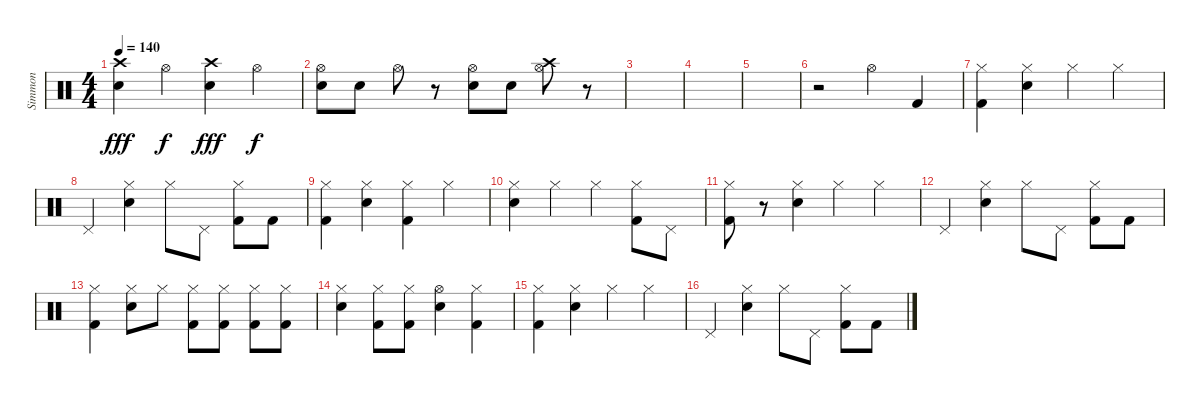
\track ("Simmon" "Simmon") {instrument percussion}
\staff {score}
\articulation defaults
\ts (4 4)
\tempo 140
\clef neutral
\ks c
("Crash high (hit)" "Electric Snare (hit)").4{dy fff} "Hi-Hat (open)".4{dy f} ("Crash high (hit)" "Electric Snare (hit)").4{dy fff} "Hi-Hat (open)".4{dy f} |
("Electric Snare (hit)" "Hi-Hat (open)").8 "Electric Snare (hit)".8 "Hi-Hat (open)".8 r.8 ("Electric Snare (hit)" "Hi-Hat (open)").8 "Electric Snare (hit)".8 ("Crash high (hit)" "Hi-Hat (open)").8 r.8 |
|
|
|
r.2 "Hi-Hat (open)".4 "Kick (hit) 2".4 |
("Kick (hit) 2" "Hi-Hat (closed)").4 ("Electric Snare (hit)" "Hi-Hat (closed)").4 "Hi-Hat (closed)".4 "Hi-Hat (closed)".4 |
"Pedal Hi-Hat (hit)".4 ("Electric Snare (hit)" "Hi-Hat (closed)").4 "Hi-Hat (closed)".8 "Pedal Hi-Hat (hit)".8 ("Kick (hit) 2" "Hi-Hat (closed)").8 "Kick (hit) 2".8 |
("Kick (hit) 2" "Hi-Hat (closed)").4 ("Electric Snare (hit)" "Hi-Hat (closed)").4 ("Kick (hit) 2" "Hi-Hat (closed)").4 "Hi-Hat (closed)".4 |
("Electric Snare (hit)" "Hi-Hat (closed)").4 "Hi-Hat (closed)".4 "Hi-Hat (closed)".4 ("Kick (hit) 2" "Hi-Hat (closed)").8 "Pedal Hi-Hat (hit)".8 |
("Kick (hit) 2" "Hi-Hat (closed)").8 r.8 ("Electric Snare (hit)" "Hi-Hat (closed)").4 "Hi-Hat (closed)".4 "Hi-Hat (closed)".4 |
"Pedal Hi-Hat (hit)".4 ("Electric Snare (hit)" "Hi-Hat (closed)").4 "Hi-Hat (closed)".8 "Pedal Hi-Hat (hit)".8 ("Kick (hit) 2" "Hi-Hat (closed)").8 "Kick (hit) 2".8 |
("Kick (hit) 2" "Hi-Hat (closed)").4 ("Electric Snare (hit)" "Hi-Hat (closed)").8 "Hi-Hat (closed)".8 ("Kick (hit) 2" "Hi-Hat (closed)").8 ("Kick (hit) 2" "Hi-Hat (closed)").8 ("Kick (hit) 2" "Hi-Hat (closed)").8 ("Kick (hit) 2" "Hi-Hat (closed)").8 |
("Electric Snare (hit)" "Hi-Hat (closed)").4 ("Kick (hit) 2" "Hi-Hat (closed)").8 ("Kick (hit) 2" "Hi-Hat (closed)").8 ("Electric Snare (hit)" "Hi-Hat (open)").4 ("Kick (hit) 2" "Hi-Hat (closed)").4 |
("Kick (hit) 2" "Hi-Hat (closed)").4 ("Electric Snare (hit)" "Hi-Hat (closed)").4 "Hi-Hat (closed)".4 "Hi-Hat (closed)".4 |
"Pedal Hi-Hat (hit)".4 ("Electric Snare (hit)" "Hi-Hat (closed)").4 "Hi-Hat (closed)".8 "Pedal Hi-Hat (hit)".8 ("Kick (hit) 2" "Hi-Hat (closed)").8 "Kick (hit) 2".8
